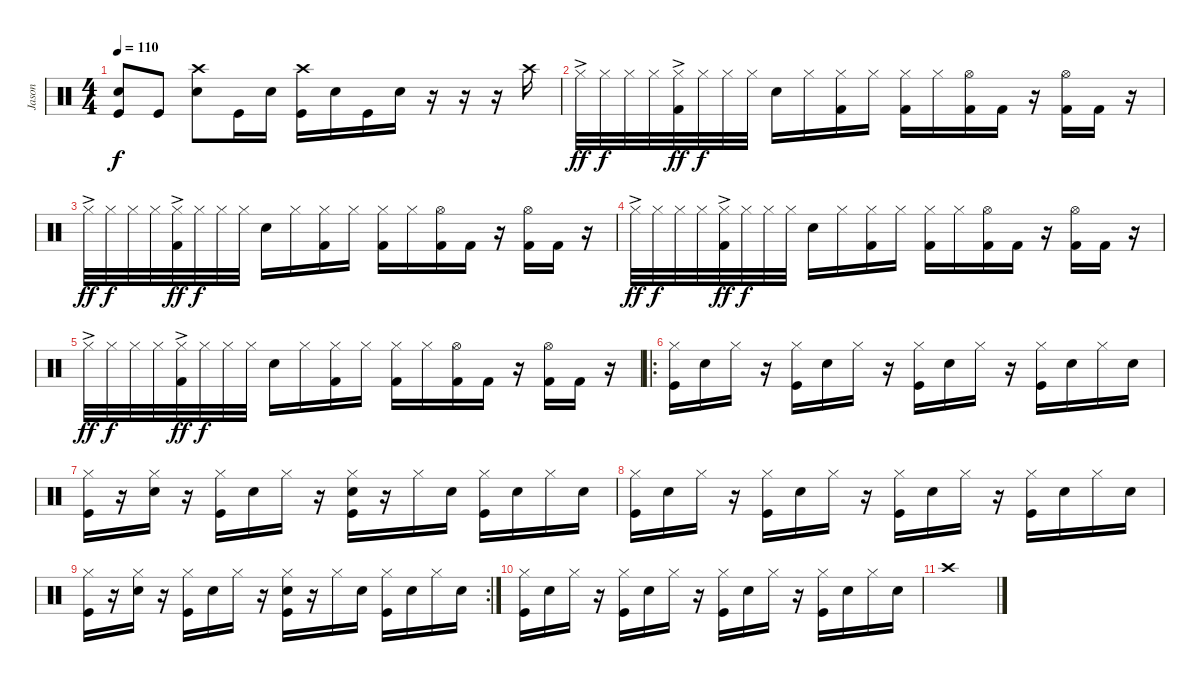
\track ("Jason" "Jason") {instrument percussion}
\staff {score}
\articulation defaults
\ts (4 4)
\tempo 110
\clef neutral
\ks c
("Snare (hit) 2" "Kick (hit)").8{dy f} "Kick (hit)".8 ("Crash high (hit)" "Snare (hit) 2").8 "Kick (hit)".16 "Snare (hit) 2".16 ("Crash high (hit)" "Kick (hit)").16 "Snare (hit) 2".16 "Kick (hit)".16 "Snare (hit) 2".16 r.16 r.16 r.16 "Crash high (hit)".16 |
"Hi-Hat (closed)"{ac}.32{dy ff} "Hi-Hat (closed)".32{dy f} "Hi-Hat (closed)".32 "Hi-Hat (closed)".32 ("Hi-Hat (closed)"{ac} "Kick (hit) 2").32{dy ff} "Hi-Hat (closed)".32{dy f} "Hi-Hat (closed)".32 "Hi-Hat (closed)".32 "Snare (hit) 2".16 "Hi-Hat (closed)".16 ("Hi-Hat (closed)" "Kick (hit) 2").16 "Hi-Hat (closed)".16 ("Hi-Hat (closed)" "Kick (hit) 2").16 "Hi-Hat (closed)".16 ("Hi-Hat (open)" "Kick (hit) 2").16 "Kick (hit) 2".16 r.16 ("Hi-Hat (open)" "Kick (hit) 2").16 "Kick (hit) 2".16 r.16 |
"Hi-Hat (closed)"{ac}.32{dy ff} "Hi-Hat (closed)".32{dy f} "Hi-Hat (closed)".32 "Hi-Hat (closed)".32 ("Hi-Hat (closed)"{ac} "Kick (hit) 2").32{dy ff} "Hi-Hat (closed)".32{dy f} "Hi-Hat (closed)".32 "Hi-Hat (closed)".32 "Snare (hit) 2".16 "Hi-Hat (closed)".16 ("Hi-Hat (closed)" "Kick (hit) 2").16 "Hi-Hat (closed)".16 ("Hi-Hat (closed)" "Kick (hit) 2").16 "Hi-Hat (closed)".16 ("Hi-Hat (open)" "Kick (hit) 2").16 "Kick (hit) 2".16 r.16 ("Hi-Hat (open)" "Kick (hit) 2").16 "Kick (hit) 2".16 r.16 |
"Hi-Hat (closed)"{ac}.32{dy ff} "Hi-Hat (closed)".32{dy f} "Hi-Hat (closed)".32 "Hi-Hat (closed)".32 ("Hi-Hat (closed)"{ac} "Kick (hit) 2").32{dy ff} "Hi-Hat (closed)".32{dy f} "Hi-Hat (closed)".32 "Hi-Hat (closed)".32 "Snare (hit) 2".16 "Hi-Hat (closed)".16 ("Hi-Hat (closed)" "Kick (hit) 2").16 "Hi-Hat (closed)".16 ("Hi-Hat (closed)" "Kick (hit) 2").16 "Hi-Hat (closed)".16 ("Hi-Hat (open)" "Kick (hit) 2").16 "Kick (hit) 2".16 r.16 ("Hi-Hat (open)" "Kick (hit) 2").16 "Kick (hit) 2".16 r.16 |
"Hi-Hat (closed)"{ac}.32{dy ff} "Hi-Hat (closed)".32{dy f} "Hi-Hat (closed)".32 "Hi-Hat (closed)".32 ("Hi-Hat (closed)"{ac} "Kick (hit) 2").32{dy ff} "Hi-Hat (closed)".32{dy f} "Hi-Hat (closed)".32 "Hi-Hat (closed)".32 "Snare (hit) 2".16 "Hi-Hat (closed)".16 ("Hi-Hat (closed)" "Kick (hit) 2").16 "Hi-Hat (closed)".16 ("Hi-Hat (closed)" "Kick (hit) 2").16 "Hi-Hat (closed)".16 ("Hi-Hat (open)" "Kick (hit) 2").16 "Kick (hit) 2".16 r.16 ("Hi-Hat (open)" "Kick (hit) 2").16 "Kick (hit) 2".16 r.16 |
\ro
("Hi-Hat (closed)" "Kick (hit)").16 "Snare (hit) 2".16 "Hi-Hat (closed)".16 r.16 ("Hi-Hat (closed)" "Kick (hit)").16 "Snare (hit) 2".16 "Hi-Hat (closed)".16 r.16 ("Hi-Hat (closed)" "Kick (hit)").16 "Snare (hit) 2".16 "Hi-Hat (closed)".16 r.16 ("Hi-Hat (closed)" "Kick (hit)").16 "Snare (hit) 2".16 "Hi-Hat (closed)".16 "Snare (hit) 2".16 |
("Hi-Hat (closed)" "Kick (hit)").16 r.16 ("Hi-Hat (closed)" "Snare (hit) 2").16 r.16 ("Hi-Hat (closed)" "Kick (hit)").16 "Snare (hit) 2".16 "Hi-Hat (closed)".16 r.16 ("Hi-Hat (closed)" "Snare (hit) 2" "Kick (hit)").16 r.16 "Hi-Hat (closed)".16 "Snare (hit) 2".16 ("Hi-Hat (closed)" "Kick (hit)").16 "Snare (hit) 2".16 "Hi-Hat (closed)".16 "Snare (hit) 2".16 |
("Hi-Hat (closed)" "Kick (hit)").16 "Snare (hit) 2".16 "Hi-Hat (closed)".16 r.16 ("Hi-Hat (closed)" "Kick (hit)").16 "Snare (hit) 2".16 "Hi-Hat (closed)".16 r.16 ("Hi-Hat (closed)" "Kick (hit)").16 "Snare (hit) 2".16 "Hi-Hat (closed)".16 r.16 ("Hi-Hat (closed)" "Kick (hit)").16 "Snare (hit) 2".16 "Hi-Hat (closed)".16 "Snare (hit) 2".16 |
\rc 2
("Hi-Hat (closed)" "Kick (hit)").16 r.16 ("Hi-Hat (closed)" "Snare (hit) 2").16 r.16 ("Hi-Hat (closed)" "Kick (hit)").16 "Snare (hit) 2".16 "Hi-Hat (closed)".16 r.16 ("Hi-Hat (closed)" "Snare (hit) 2" "Kick (hit)").16 r.16 "Hi-Hat (closed)".16 "Snare (hit) 2".16 ("Hi-Hat (closed)" "Kick (hit)").16 "Snare (hit) 2".16 "Hi-Hat (closed)".16 "Snare (hit) 2".16 |
("Hi-Hat (closed)" "Kick (hit)").16 "Snare (hit) 2".16 "Hi-Hat (closed)".16 r.16 ("Hi-Hat (closed)" "Kick (hit)").16 "Snare (hit) 2".16 "Hi-Hat (closed)".16 r.16 ("Hi-Hat (closed)" "Kick (hit)").16 "Snare (hit) 2".16 "Hi-Hat (closed)".16 r.16 ("Hi-Hat (closed)" "Kick (hit)").16 "Snare (hit) 2".16 "Hi-Hat (closed)".16 "Snare (hit) 2".16 |
"Crash high (hit)".1
